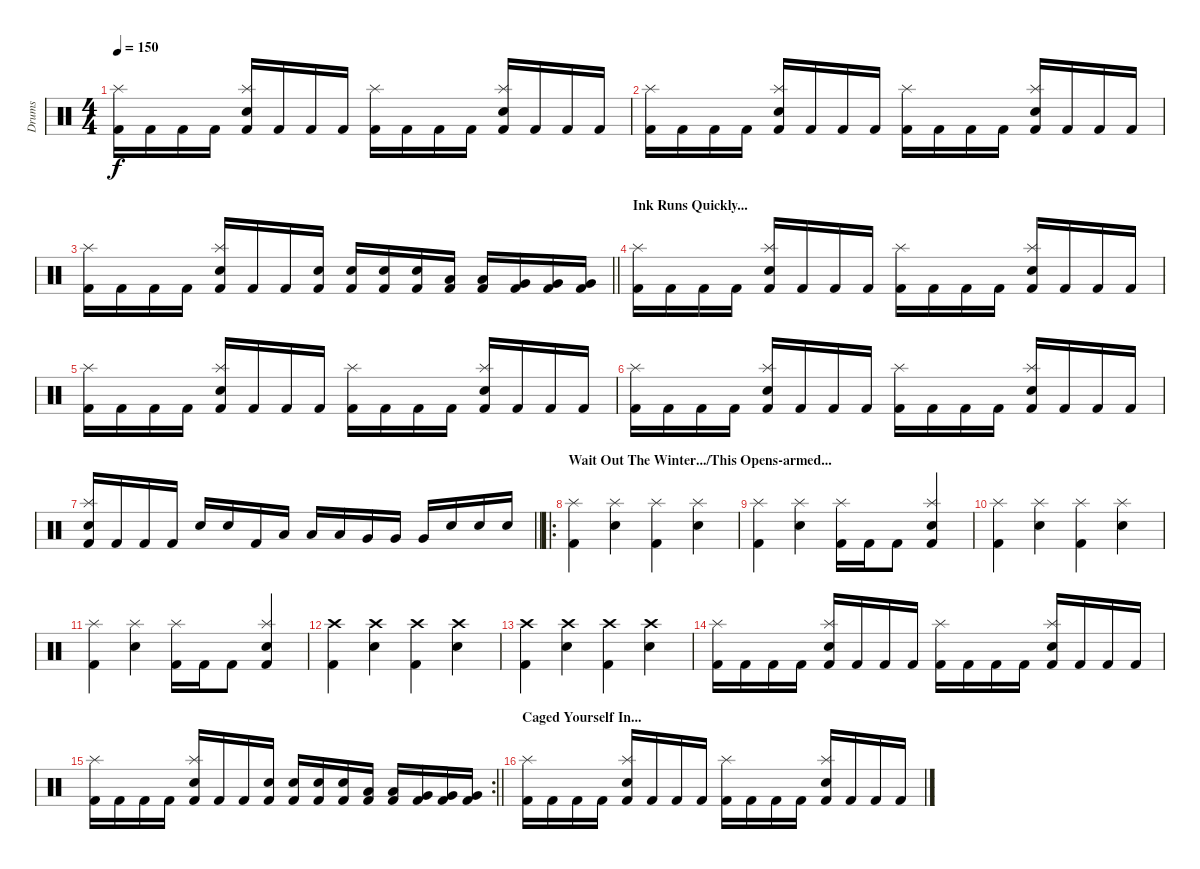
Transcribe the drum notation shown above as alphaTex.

\track ("Drums" "Drums") {instrument percussion}
\staff {score}
\articulation defaults
\ts (4 4)
\tempo 150
\clef neutral
\ks c
("Kick (hit) 2" "Splash (hit)").16{dy f} "Kick (hit) 2".16 "Kick (hit) 2".16 "Kick (hit) 2".16 ("Kick (hit) 2" "Electric Snare (hit)" "Splash (hit)").16 "Kick (hit) 2".16 "Kick (hit) 2".16 "Kick (hit) 2".16 ("Kick (hit) 2" "Splash (hit)").16 "Kick (hit) 2".16 "Kick (hit) 2".16 "Kick (hit) 2".16 ("Kick (hit) 2" "Electric Snare (hit)" "Splash (hit)").16 "Kick (hit) 2".16 "Kick (hit) 2".16 "Kick (hit) 2".16 |
("Kick (hit) 2" "Splash (hit)").16 "Kick (hit) 2".16 "Kick (hit) 2".16 "Kick (hit) 2".16 ("Kick (hit) 2" "Electric Snare (hit)" "Splash (hit)").16 "Kick (hit) 2".16 "Kick (hit) 2".16 "Kick (hit) 2".16 ("Kick (hit) 2" "Splash (hit)").16 "Kick (hit) 2".16 "Kick (hit) 2".16 "Kick (hit) 2".16 ("Kick (hit) 2" "Electric Snare (hit)" "Splash (hit)").16 "Kick (hit) 2".16 "Kick (hit) 2".16 "Kick (hit) 2".16 |
\barLineRight lightlight
("Kick (hit) 2" "Splash (hit)").16 "Kick (hit) 2".16 "Kick (hit) 2".16 "Kick (hit) 2".16 ("Kick (hit) 2" "Electric Snare (hit)" "Splash (hit)").16 "Kick (hit) 2".16 "Kick (hit) 2".16 ("Kick (hit) 2" "Electric Snare (hit)").16 ("Kick (hit) 2" "Electric Snare (hit)").16 ("Kick (hit) 2" "Electric Snare (hit)").16 ("Kick (hit) 2" "Electric Snare (hit)").16 ("Kick (hit) 2" "Low Floor Tom (hit)").16 ("Kick (hit) 2" "Low Floor Tom (hit)").16 ("Kick (hit) 2" "Very Low Tom (hit)").16 ("Kick (hit) 2" "Very Low Tom (hit)").16 ("Kick (hit) 2" "Very Low Tom (hit)").16 |
\section ("" "Ink Runs Quickly...")
("Kick (hit) 2" "Splash (hit)").16 "Kick (hit) 2".16 "Kick (hit) 2".16 "Kick (hit) 2".16 ("Kick (hit) 2" "Electric Snare (hit)" "Splash (hit)").16 "Kick (hit) 2".16 "Kick (hit) 2".16 "Kick (hit) 2".16 ("Kick (hit) 2" "Splash (hit)").16 "Kick (hit) 2".16 "Kick (hit) 2".16 "Kick (hit) 2".16 ("Kick (hit) 2" "Electric Snare (hit)" "Splash (hit)").16 "Kick (hit) 2".16 "Kick (hit) 2".16 "Kick (hit) 2".16 |
("Kick (hit) 2" "Splash (hit)").16 "Kick (hit) 2".16 "Kick (hit) 2".16 "Kick (hit) 2".16 ("Kick (hit) 2" "Electric Snare (hit)" "Splash (hit)").16 "Kick (hit) 2".16 "Kick (hit) 2".16 "Kick (hit) 2".16 ("Kick (hit) 2" "Splash (hit)").16 "Kick (hit) 2".16 "Kick (hit) 2".16 "Kick (hit) 2".16 ("Kick (hit) 2" "Electric Snare (hit)" "Splash (hit)").16 "Kick (hit) 2".16 "Kick (hit) 2".16 "Kick (hit) 2".16 |
("Kick (hit) 2" "Splash (hit)").16 "Kick (hit) 2".16 "Kick (hit) 2".16 "Kick (hit) 2".16 ("Kick (hit) 2" "Electric Snare (hit)" "Splash (hit)").16 "Kick (hit) 2".16 "Kick (hit) 2".16 "Kick (hit) 2".16 ("Kick (hit) 2" "Splash (hit)").16 "Kick (hit) 2".16 "Kick (hit) 2".16 "Kick (hit) 2".16 ("Kick (hit) 2" "Electric Snare (hit)" "Splash (hit)").16 "Kick (hit) 2".16 "Kick (hit) 2".16 "Kick (hit) 2".16 |
\barLineRight lightlight
("Kick (hit) 2" "Electric Snare (hit)" "Splash (hit)").16 "Kick (hit) 2".16 "Kick (hit) 2".16 "Kick (hit) 2".16 "Electric Snare (hit)".16 "Electric Snare (hit)".16 "Kick (hit) 2".16 "Low Floor Tom (hit)".16 "Low Floor Tom (hit)".16 "Low Floor Tom (hit)".16 "Very Low Tom (hit)".16 "Very Low Tom (hit)".16 "Very Low Tom (hit)".16 "Electric Snare (hit)".16 "Electric Snare (hit)".16 "Electric Snare (hit)".16 |
\ro
\section ("" "Wait Out The Winter.../This Opens-armed...")
("Kick (hit) 2" "Splash (hit)").4 ("Electric Snare (hit)" "Splash (hit)").4 ("Kick (hit) 2" "Splash (hit)").4 ("Electric Snare (hit)" "Splash (hit)").4 |
("Kick (hit) 2" "Splash (hit)").4 ("Electric Snare (hit)" "Splash (hit)").4 ("Kick (hit) 2" "Splash (hit)").16 "Kick (hit) 2".16 "Kick (hit) 2".8 ("Kick (hit) 2" "Electric Snare (hit)" "Splash (hit)").4 |
("Kick (hit) 2" "Splash (hit)").4 ("Electric Snare (hit)" "Splash (hit)").4 ("Kick (hit) 2" "Splash (hit)").4 ("Electric Snare (hit)" "Splash (hit)").4 |
("Kick (hit) 2" "Splash (hit)").4 ("Electric Snare (hit)" "Splash (hit)").4 ("Kick (hit) 2" "Splash (hit)").16 "Kick (hit) 2".16 "Kick (hit) 2".8 ("Kick (hit) 2" "Electric Snare (hit)" "Splash (hit)").4 |
("Kick (hit) 2" "Crash high (hit)").4 ("Electric Snare (hit)" "Crash high (hit)").4 ("Kick (hit) 2" "Crash high (hit)").4 ("Electric Snare (hit)" "Crash high (hit)").4 |
("Kick (hit) 2" "Crash high (hit)").4 ("Electric Snare (hit)" "Crash high (hit)").4 ("Kick (hit) 2" "Crash high (hit)").4 ("Electric Snare (hit)" "Crash high (hit)").4 |
("Kick (hit) 2" "Splash (hit)").16 "Kick (hit) 2".16 "Kick (hit) 2".16 "Kick (hit) 2".16 ("Kick (hit) 2" "Electric Snare (hit)" "Splash (hit)").16 "Kick (hit) 2".16 "Kick (hit) 2".16 "Kick (hit) 2".16 ("Kick (hit) 2" "Splash (hit)").16 "Kick (hit) 2".16 "Kick (hit) 2".16 "Kick (hit) 2".16 ("Kick (hit) 2" "Electric Snare (hit)" "Splash (hit)").16 "Kick (hit) 2".16 "Kick (hit) 2".16 "Kick (hit) 2".16 |
\rc 2
\barLineRight lightlight
("Kick (hit) 2" "Splash (hit)").16 "Kick (hit) 2".16 "Kick (hit) 2".16 "Kick (hit) 2".16 ("Kick (hit) 2" "Electric Snare (hit)" "Splash (hit)").16 "Kick (hit) 2".16 "Kick (hit) 2".16 ("Kick (hit) 2" "Electric Snare (hit)").16 ("Kick (hit) 2" "Electric Snare (hit)").16 ("Kick (hit) 2" "Electric Snare (hit)").16 ("Kick (hit) 2" "Electric Snare (hit)").16 ("Kick (hit) 2" "Low Floor Tom (hit)").16 ("Kick (hit) 2" "Low Floor Tom (hit)").16 ("Kick (hit) 2" "Very Low Tom (hit)").16 ("Kick (hit) 2" "Very Low Tom (hit)").16 ("Kick (hit) 2" "Very Low Tom (hit)").16 |
\section ("" "Caged Yourself In...")
("Kick (hit) 2" "Splash (hit)").16 "Kick (hit) 2".16 "Kick (hit) 2".16 "Kick (hit) 2".16 ("Kick (hit) 2" "Electric Snare (hit)" "Splash (hit)").16 "Kick (hit) 2".16 "Kick (hit) 2".16 "Kick (hit) 2".16 ("Kick (hit) 2" "Splash (hit)").16 "Kick (hit) 2".16 "Kick (hit) 2".16 "Kick (hit) 2".16 ("Kick (hit) 2" "Electric Snare (hit)" "Splash (hit)").16 "Kick (hit) 2".16 "Kick (hit) 2".16 "Kick (hit) 2".16
